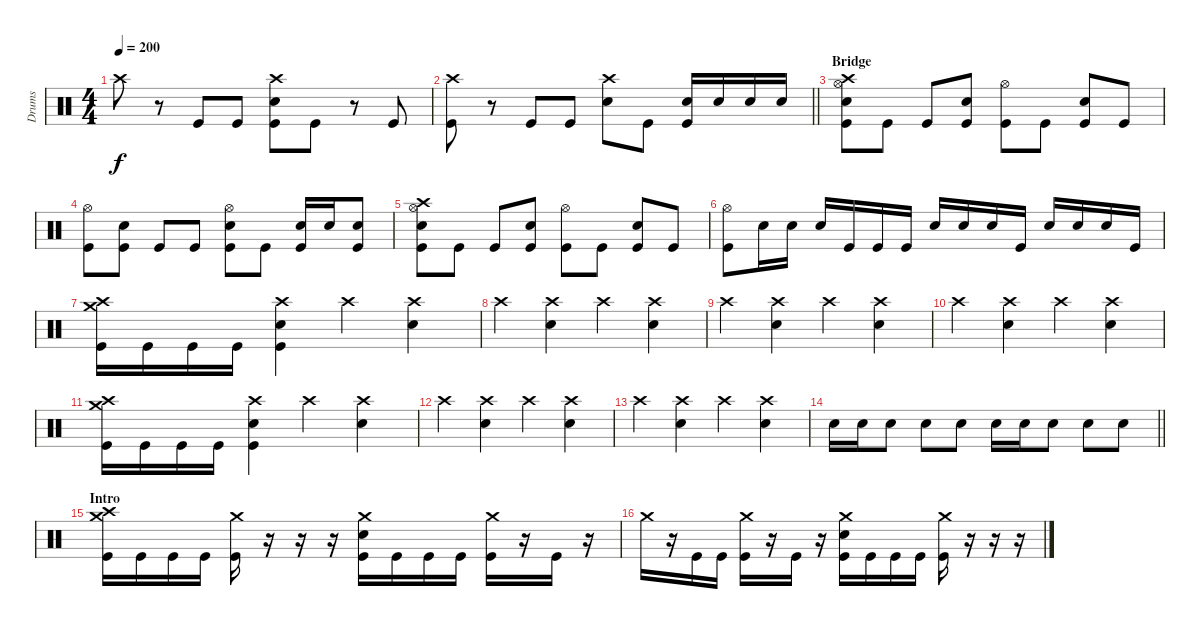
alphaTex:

\track ("Drums" "Drums") {instrument percussion}
\staff {score}
\articulation defaults
\ts (4 4)
\tempo 200
\clef neutral
\ks c "Crash high (hit)".8{dy f}
r.8 "Kick (hit)".8 "Kick (hit)".8 ("Crash high (hit)" "Electric Snare (hit)" "Kick (hit)").8 "Kick (hit)".8 r.8 "Kick (hit)".8 |
\barLineRight lightlight
("Crash high (hit)" "Kick (hit)").8 r.8 "Kick (hit)".8 "Kick (hit)".8 ("Crash high (hit)" "Electric Snare (hit)").8 "Kick (hit)".8 ("Electric Snare (hit)" "Kick (hit)").16 "Electric Snare (hit)".16 "Electric Snare (hit)".16 "Electric Snare (hit)".16 |
\section ("" "Bridge")
("Hi-Hat (open)" "Crash high (hit)" "Electric Snare (hit)" "Kick (hit)").8 "Kick (hit)".8 "Kick (hit)".8 ("Electric Snare (hit)" "Kick (hit)").8 ("Hi-Hat (open)" "Kick (hit)").8 "Kick (hit)".8 ("Electric Snare (hit)" "Kick (hit)").8 "Kick (hit)".8 |
("Hi-Hat (open)" "Kick (hit)").8 ("Electric Snare (hit)" "Kick (hit)").8 "Kick (hit)".8 "Kick (hit)".8 ("Hi-Hat (open)" "Electric Snare (hit)" "Kick (hit)").8 "Kick (hit)".8 ("Electric Snare (hit)" "Kick (hit)").16 "Electric Snare (hit)".16 ("Electric Snare (hit)" "Kick (hit)").8 |
("Hi-Hat (open)" "Crash high (hit)" "Electric Snare (hit)" "Kick (hit)").8 "Kick (hit)".8 "Kick (hit)".8 ("Electric Snare (hit)" "Kick (hit)").8 ("Hi-Hat (open)" "Kick (hit)").8 "Kick (hit)".8 ("Electric Snare (hit)" "Kick (hit)").8 "Kick (hit)".8 |
("Hi-Hat (open)" "Kick (hit)").8 "Electric Snare (hit)".16 "Electric Snare (hit)".16 "Electric Snare (hit)".16 "Kick (hit)".16 "Kick (hit)".16 "Kick (hit)".16 "Electric Snare (hit)".16 "Electric Snare (hit)".16 "Electric Snare (hit)".16 "Kick (hit)".16 "Electric Snare (hit)".16 "Electric Snare (hit)".16 "Electric Snare (hit)".16 "Kick (hit)".16 |
("Crash high (hit)" "Crash medium (hit)" "Kick (hit)").16 "Kick (hit)".16 "Kick (hit)".16 "Kick (hit)".16 ("Crash high (hit)" "Electric Snare (hit)" "Kick (hit)").4 "Crash high (hit)".4 ("Crash high (hit)" "Electric Snare (hit)").4 |
"Crash high (hit)".4 ("Crash high (hit)" "Electric Snare (hit)").4 "Crash high (hit)".4 ("Crash high (hit)" "Electric Snare (hit)").4 |
"Crash high (hit)".4 ("Crash high (hit)" "Electric Snare (hit)").4 "Crash high (hit)".4 ("Crash high (hit)" "Electric Snare (hit)").4 |
"Crash high (hit)".4 ("Crash high (hit)" "Electric Snare (hit)").4 "Crash high (hit)".4 ("Crash high (hit)" "Electric Snare (hit)").4 |
("Crash high (hit)" "Crash medium (hit)" "Kick (hit)").16 "Kick (hit)".16 "Kick (hit)".16 "Kick (hit)".16 ("Crash high (hit)" "Electric Snare (hit)" "Kick (hit)").4 "Crash high (hit)".4 ("Crash high (hit)" "Electric Snare (hit)").4 |
"Crash high (hit)".4 ("Crash high (hit)" "Electric Snare (hit)").4 "Crash high (hit)".4 ("Crash high (hit)" "Electric Snare (hit)").4 |
"Crash high (hit)".4 ("Crash high (hit)" "Electric Snare (hit)").4 "Crash high (hit)".4 ("Crash high (hit)" "Electric Snare (hit)").4 |
\barLineRight lightlight "Electric Snare (hit)".16 "Electric Snare (hit)".16 "Electric Snare (hit)".8 "Electric Snare (hit)".8 "Electric Snare (hit)".8 "Electric Snare (hit)".16 "Electric Snare (hit)".16 "Electric Snare (hit)".8 "Electric Snare (hit)".8 "Electric Snare (hit)".8
|
\section ("" "Intro")
("Crash medium (hit)" "Crash high (hit)" "Kick (hit)").16 "Kick (hit)".16 "Kick (hit)".16 "Kick (hit)".16 ("Crash medium (hit)" "Kick (hit)").16 r.16 r.16 r.16 ("Crash medium (hit)" "Electric Snare (hit)" "Kick (hit)").16 "Kick (hit)".16 "Kick (hit)".16 "Kick (hit)".16 ("Crash medium (hit)" "Kick (hit)").16 r.16 "Kick (hit)".16 r.16 |
"Crash medium (hit)".16 r.16 "Kick (hit)".16 "Kick (hit)".16 ("Crash medium (hit)" "Kick (hit)").16 r.16 "Kick (hit)".16 r.16 ("Crash medium (hit)" "Electric Snare (hit)" "Kick (hit)").16 "Kick (hit)".16 "Kick (hit)".16 "Kick (hit)".16 ("Crash medium (hit)" "Kick (hit)").16 r.16 r.16 r.16
